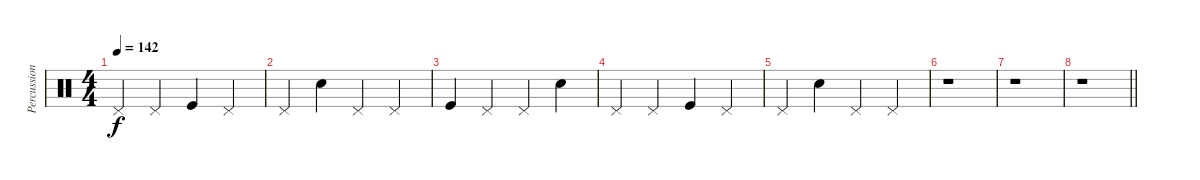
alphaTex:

\track ("Percussion" "Percussion") {instrument percussion}
\staff {score}
\articulation defaults
\ts (4 4)
\tempo 142
\clef neutral
\ks c "Pedal Hi-Hat (hit)".4{dy f} "Pedal Hi-Hat (hit)".4 "Kick (hit)".4 "Pedal Hi-Hat (hit)".4
|
"Pedal Hi-Hat (hit)".4 "Electric Snare (hit)".4 "Pedal Hi-Hat (hit)".4 "Pedal Hi-Hat (hit)".4 |
"Kick (hit)".4 "Pedal Hi-Hat (hit)".4 "Pedal Hi-Hat (hit)".4 "Electric Snare (hit)".4 |
"Pedal Hi-Hat (hit)".4 "Pedal Hi-Hat (hit)".4 "Kick (hit)".4 "Pedal Hi-Hat (hit)".4 |
"Pedal Hi-Hat (hit)".4 "Electric Snare (hit)".4 "Pedal Hi-Hat (hit)".4 "Pedal Hi-Hat (hit)".4 |
r.1 |
r.1 |
\barLineRight lightlight
r.1
